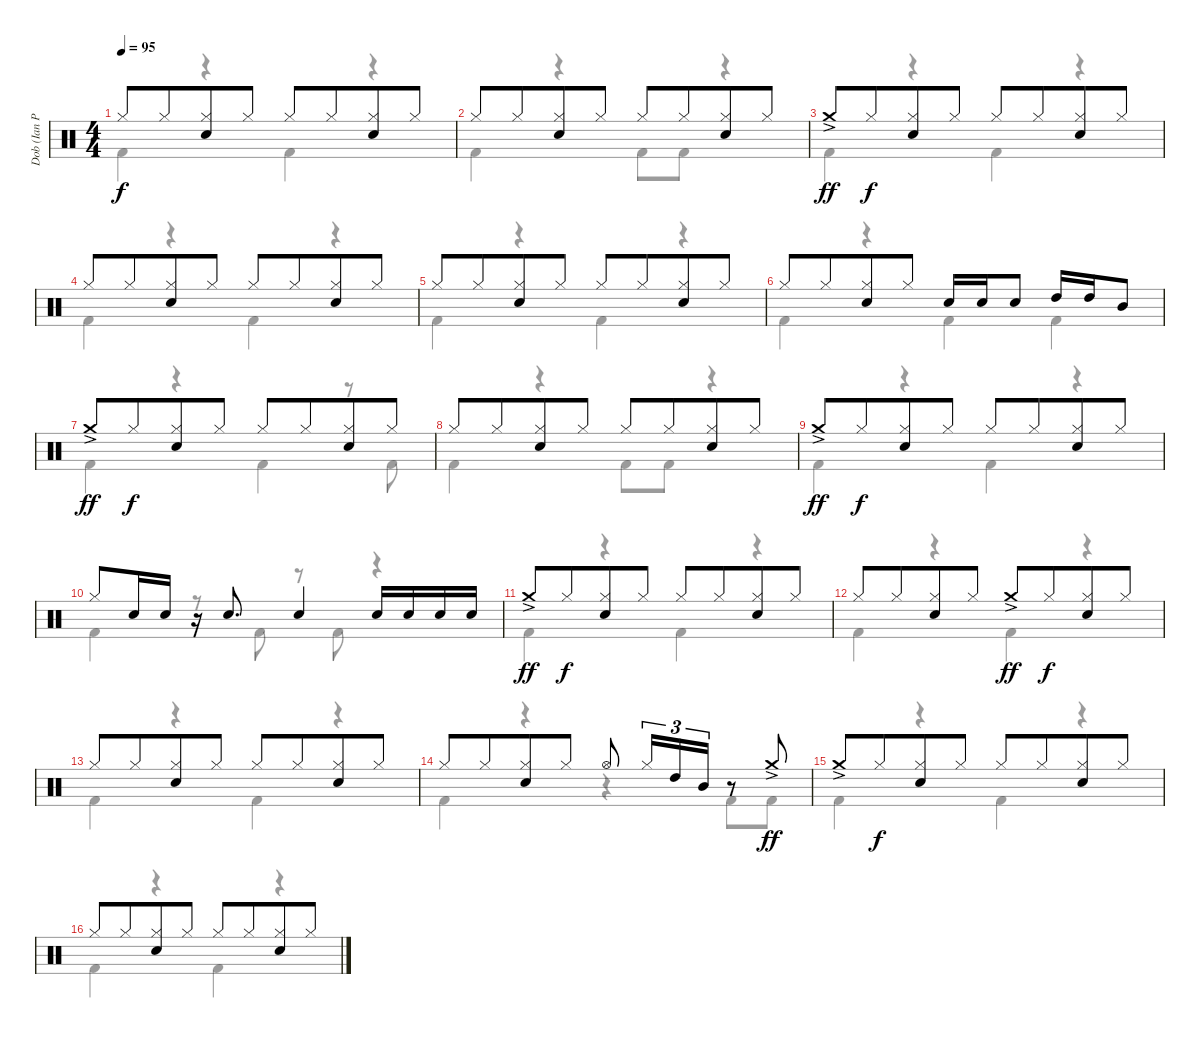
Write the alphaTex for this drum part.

\track ("Dob (Ian Paice)" "Dob (Ian P") {instrument percussion}
\staff {score}
\articulation defaults
\voice
\ts (4 4)
\tempo 95
\clef neutral
\ks c "Hi-Hat (closed)".8{dy f} "Hi-Hat (closed)".8{beam merge}
("Hi-Hat (closed)" "Electric Snare (hit)").8 "Hi-Hat (closed)".8 "Hi-Hat (closed)".8 "Hi-Hat (closed)".8{beam merge} ("Hi-Hat (closed)" "Electric Snare (hit)").8 "Hi-Hat (closed)".8 |
"Hi-Hat (closed)".8 "Hi-Hat (closed)".8{beam merge} ("Hi-Hat (closed)" "Electric Snare (hit)").8 "Hi-Hat (closed)".8 "Hi-Hat (closed)".8 "Hi-Hat (closed)".8{beam merge} ("Hi-Hat (closed)" "Electric Snare (hit)").8 "Hi-Hat (closed)".8 |
"Crash medium (hit)"{ac}.8{dy ff} "Hi-Hat (closed)".8{dy f beam merge} ("Hi-Hat (closed)" "Electric Snare (hit)").8 "Hi-Hat (closed)".8 "Hi-Hat (closed)".8 "Hi-Hat (closed)".8{beam merge} ("Hi-Hat (closed)" "Electric Snare (hit)").8 "Hi-Hat (closed)".8 |
"Hi-Hat (closed)".8 "Hi-Hat (closed)".8{beam merge} ("Hi-Hat (closed)" "Electric Snare (hit)").8 "Hi-Hat (closed)".8 "Hi-Hat (closed)".8 "Hi-Hat (closed)".8{beam merge} ("Hi-Hat (closed)" "Electric Snare (hit)").8 "Hi-Hat (closed)".8 |
"Hi-Hat (closed)".8 "Hi-Hat (closed)".8{beam merge} ("Hi-Hat (closed)" "Electric Snare (hit)").8 "Hi-Hat (closed)".8 "Hi-Hat (closed)".8 "Hi-Hat (closed)".8{beam merge} ("Hi-Hat (closed)" "Electric Snare (hit)").8 "Hi-Hat (closed)".8 |
"Hi-Hat (closed)".8 "Hi-Hat (closed)".8{beam merge} ("Hi-Hat (closed)" "Electric Snare (hit)").8 "Hi-Hat (closed)".8 "Electric Snare (hit)".16 "Electric Snare (hit)".16 "Electric Snare (hit)".8 "High Tom (hit)".16 "High Tom (hit)".16 "Mid Tom (hit)".8 |
"Crash medium (hit)"{ac}.8{dy ff} "Hi-Hat (closed)".8{dy f beam merge} ("Hi-Hat (closed)" "Electric Snare (hit)").8 "Hi-Hat (closed)".8 "Hi-Hat (closed)".8 "Hi-Hat (closed)".8{beam merge} ("Hi-Hat (closed)" "Electric Snare (hit)").8 "Hi-Hat (closed)".8 |
"Hi-Hat (closed)".8 "Hi-Hat (closed)".8{beam merge} ("Hi-Hat (closed)" "Electric Snare (hit)").8 "Hi-Hat (closed)".8 "Hi-Hat (closed)".8 "Hi-Hat (closed)".8{beam merge} ("Hi-Hat (closed)" "Electric Snare (hit)").8 "Hi-Hat (closed)".8 |
"Crash medium (hit)"{ac}.8{dy ff} "Hi-Hat (closed)".8{dy f beam merge} ("Hi-Hat (closed)" "Electric Snare (hit)").8 "Hi-Hat (closed)".8 "Hi-Hat (closed)".8 "Hi-Hat (closed)".8{beam merge} ("Hi-Hat (closed)" "Electric Snare (hit)").8 "Hi-Hat (closed)".8 |
"Hi-Hat (closed)".8 "Electric Snare (hit)".16 "Electric Snare (hit)".16 r.16 "Electric Snare (hit)".8{d} "Electric Snare (hit)".4 "Electric Snare (hit)".16 "Electric Snare (hit)".16 "Electric Snare (hit)".16 "Electric Snare (hit)".16 |
"Crash medium (hit)"{ac}.8{dy ff} "Hi-Hat (closed)".8{dy f beam merge} ("Hi-Hat (closed)" "Electric Snare (hit)").8 "Hi-Hat (closed)".8 "Hi-Hat (closed)".8 "Hi-Hat (closed)".8{beam merge} ("Hi-Hat (closed)" "Electric Snare (hit)").8 "Hi-Hat (closed)".8 |
"Hi-Hat (closed)".8 "Hi-Hat (closed)".8{beam merge} ("Hi-Hat (closed)" "Electric Snare (hit)").8 "Hi-Hat (closed)".8 "Crash medium (hit)"{ac}.8{dy ff} "Hi-Hat (closed)".8{dy f beam merge} ("Hi-Hat (closed)" "Electric Snare (hit)").8 "Hi-Hat (closed)".8 |
"Hi-Hat (closed)".8 "Hi-Hat (closed)".8{beam merge} ("Hi-Hat (closed)" "Electric Snare (hit)").8 "Hi-Hat (closed)".8 "Hi-Hat (closed)".8 "Hi-Hat (closed)".8{beam merge} ("Hi-Hat (closed)" "Electric Snare (hit)").8 "Hi-Hat (closed)".8 |
"Hi-Hat (closed)".8 "Hi-Hat (closed)".8{beam merge} ("Hi-Hat (closed)" "Electric Snare (hit)").8 "Hi-Hat (closed)".8 "Hi-Hat (open)".8 "Hi-Hat (closed)".16{tu (3 2)} "High Tom (hit)".16{tu (3 2)} "Mid Tom (hit)".16{tu (3 2)} r.8 "Crash medium (hit)"{ac}.8{dy ff} |
"Crash medium (hit)"{ac}.8 "Hi-Hat (closed)".8{dy f beam merge} ("Hi-Hat (closed)" "Electric Snare (hit)").8 "Hi-Hat (closed)".8 "Hi-Hat (closed)".8 "Hi-Hat (closed)".8{beam merge} ("Hi-Hat (closed)" "Electric Snare (hit)").8 "Hi-Hat (closed)".8 |
"Hi-Hat (closed)".8 "Hi-Hat (closed)".8{beam merge} ("Hi-Hat (closed)" "Electric Snare (hit)").8 "Hi-Hat (closed)".8 "Hi-Hat (closed)".8 "Hi-Hat (closed)".8{beam merge} ("Hi-Hat (closed)" "Electric Snare (hit)").8 "Hi-Hat (closed)".8
\voice
\clef neutral
\ottava regular
\simile none
\ks c "Kick (hit) 2".4{dy f}
r.4 "Kick (hit) 2".4 r.4 |
"Kick (hit) 2".4 r.4 "Kick (hit) 2".8 "Kick (hit) 2".8 r.4 |
"Kick (hit) 2".4 r.4 "Kick (hit) 2".4 r.4 |
"Kick (hit) 2".4 r.4 "Kick (hit) 2".4 r.4 |
"Kick (hit) 2".4 r.4 "Kick (hit) 2".4 r.4 |
"Kick (hit) 2".4 r.4 "Kick (hit) 2".4 "Kick (hit) 2".4 |
"Kick (hit) 2".4 r.4 "Kick (hit) 2".4 r.8 "Kick (hit) 2".8 |
"Kick (hit) 2".4 r.4 "Kick (hit) 2".8 "Kick (hit) 2".8 r.4 |
"Kick (hit) 2".4 r.4 "Kick (hit) 2".4 r.4 |
"Kick (hit) 2".4 r.8 "Kick (hit) 2".8 r.8 "Kick (hit) 2".8 r.4 |
"Kick (hit) 2".4 r.4 "Kick (hit) 2".4 r.4 |
"Kick (hit) 2".4 r.4 "Kick (hit) 2".4 r.4 |
"Kick (hit) 2".4 r.4 "Kick (hit) 2".4 r.4 |
"Kick (hit) 2".4 r.4 r.4 "Kick (hit) 2".8 "Kick (hit) 2".8 |
"Kick (hit) 2".4 r.4 "Kick (hit) 2".4 r.4 |
"Kick (hit) 2".4 r.4 "Kick (hit) 2".4 r.4
